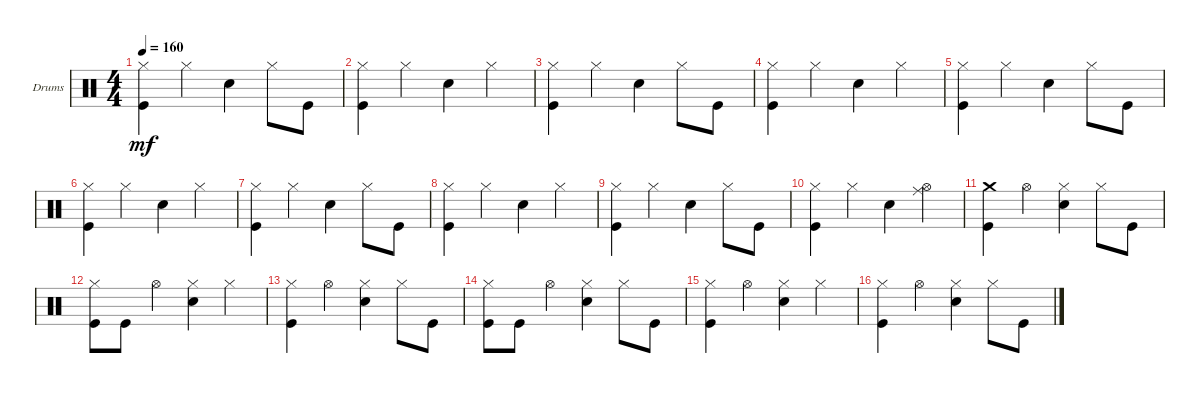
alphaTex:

\defaultSystemsLayout 4
\bracketExtendMode groupsimilarinstruments
\firstSystemTrackNameOrientation horizontal
\otherSystemsTrackNameOrientation horizontal
\track ("Drumkit" "Drums") {instrument percussion}
\staff {score}
\articulation defaults
\ts (4 4)
\tempo 160
\clef neutral
\scale
0.333333
\ks c
("Kick (hit)" "Hi-Hat (closed)").4{dy mf} "Hi-Hat (closed)".4 "Snare (hit) 2".4 "Hi-Hat (closed)".8 "Kick (hit)".8 |
\scale
0.333333 ("Kick (hit)" "Hi-Hat (closed)").4 "Hi-Hat (closed)".4 "Snare (hit) 2".4 "Hi-Hat (closed)".4 |
\scale
0.333333 ("Kick (hit)" "Hi-Hat (closed)").4 "Hi-Hat (closed)".4 "Snare (hit) 2".4 "Hi-Hat (closed)".8 "Kick (hit)".8 |
\scale
0.333333 ("Kick (hit)" "Hi-Hat (closed)").4 "Hi-Hat (closed)".4 "Snare (hit) 2".4 "Hi-Hat (closed)".4 |
\scale
0.333333 ("Kick (hit)" "Hi-Hat (closed)").4 "Hi-Hat (closed)".4 "Snare (hit) 2".4 "Hi-Hat (closed)".8 "Kick (hit)".8 |
\scale
0.333333 ("Kick (hit)" "Hi-Hat (closed)").4 "Hi-Hat (closed)".4 "Snare (hit) 2".4 "Hi-Hat (closed)".4 |
\scale
0.333333 ("Kick (hit)" "Hi-Hat (closed)").4 "Hi-Hat (closed)".4 "Snare (hit) 2".4 "Hi-Hat (closed)".8 "Kick (hit)".8 |
\scale
0.333333 ("Kick (hit)" "Hi-Hat (closed)").4 "Hi-Hat (closed)".4 "Snare (hit) 2".4 "Hi-Hat (closed)".4 |
\scale
0.333333 ("Kick (hit)" "Hi-Hat (closed)").4 "Hi-Hat (closed)".4 "Snare (hit) 2".4 "Hi-Hat (closed)".8 "Kick (hit)".8 |
\scale
0.333333 ("Kick (hit)" "Hi-Hat (closed)").4 "Hi-Hat (closed)".4 "Snare (hit) 2".4 ("Ride (middle)" "Hi-Hat (open)").4 |
\scale
0.333333 ("Crash medium (hit)" "Kick (hit)").4 "Hi-Hat (open)".4 ("Snare (hit) 2" "Hi-Hat (closed)").4 "Hi-Hat (closed)".8 "Kick (hit)".8 |
\scale
0.333333 ("Kick (hit)" "Hi-Hat (closed)").8 "Kick (hit)".8 "Hi-Hat (open)".4 ("Snare (hit) 2" "Hi-Hat (closed)").4 "Hi-Hat (closed)".4 |
\scale
0.333333 ("Kick (hit)" "Hi-Hat (closed)").4 "Hi-Hat (open)".4 ("Snare (hit) 2" "Hi-Hat (closed)").4 "Hi-Hat (closed)".8 "Kick (hit)".8 |
\scale
0.333333 ("Kick (hit)" "Hi-Hat (closed)").8 "Kick (hit)".8 "Hi-Hat (open)".4 ("Snare (hit) 2" "Hi-Hat (closed)").4 "Hi-Hat (closed)".8 "Kick (hit)".8 |
\scale
0.333333 ("Kick (hit)" "Hi-Hat (closed)").4 "Hi-Hat (open)".4 ("Snare (hit) 2" "Hi-Hat (closed)").4 "Hi-Hat (closed)".4 |
\scale
0.333333 ("Kick (hit)" "Hi-Hat (closed)").4 "Hi-Hat (open)".4 ("Snare (hit) 2" "Hi-Hat (closed)").4 "Hi-Hat (closed)".8 "Kick (hit)".8
